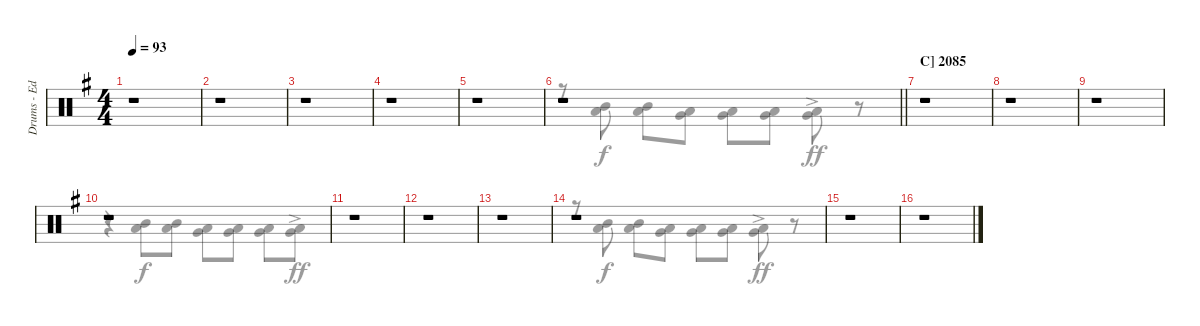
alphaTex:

\track ("Drums - Ed Warby" "Drums - Ed") {instrument percussion}
\staff {score}
\articulation defaults
\voice
\ts (4 4)
\tempo 93
\clef neutral
\ks eminor
r.1{dy mf} |
r.1 |
r.1 |
r.1 |
r.1 |
\barLineRight lightlight
r.1 |
\section ("" "C] 2085")
r.1 |
r.1 |
r.1 |
r.1 |
r.1 |
r.1 |
r.1 |
r.1 |
r.1 |
r.1
\voice
\clef neutral
\ottava regular
\simile none
\ks eminor
|
|
|
|
|
\barLineRight lightlight
r.8 ("Mid Tom (hit)" "Low Tom (hit)").8{dy f} ("Mid Tom (hit)" "Low Tom (hit)").8 ("Low Tom (hit)" "Very Low Tom (hit)").8 ("Low Tom (hit)" "Very Low Tom (hit)").8 ("Very Low Tom (hit)" "Low Floor Tom (hit)").8 ("Very Low Tom (hit)"{ac} "Low Floor Tom (hit)"{ac}).8{dy ff} r.8 |
|
|
|
r.4 ("Mid Tom (hit)" "Low Tom (hit)").8{dy f} ("Mid Tom (hit)" "Low Tom (hit)").8 ("Low Tom (hit)" "Very Low Tom (hit)").8 ("Low Tom (hit)" "Very Low Tom (hit)").8 ("Very Low Tom (hit)" "Low Floor Tom (hit)").8 ("Very Low Tom (hit)"{ac} "Low Floor Tom (hit)"{ac}).8{dy ff} |
|
|
|
r.8 ("Mid Tom (hit)" "Low Tom (hit)").8{dy f} ("Mid Tom (hit)" "Low Tom (hit)").8 ("Low Tom (hit)" "Very Low Tom (hit)").8 ("Low Tom (hit)" "Very Low Tom (hit)").8 ("Very Low Tom (hit)" "Low Floor Tom (hit)").8 ("Very Low Tom (hit)"{ac} "Low Floor Tom (hit)"{ac}).8{dy ff} r.8 |
|
